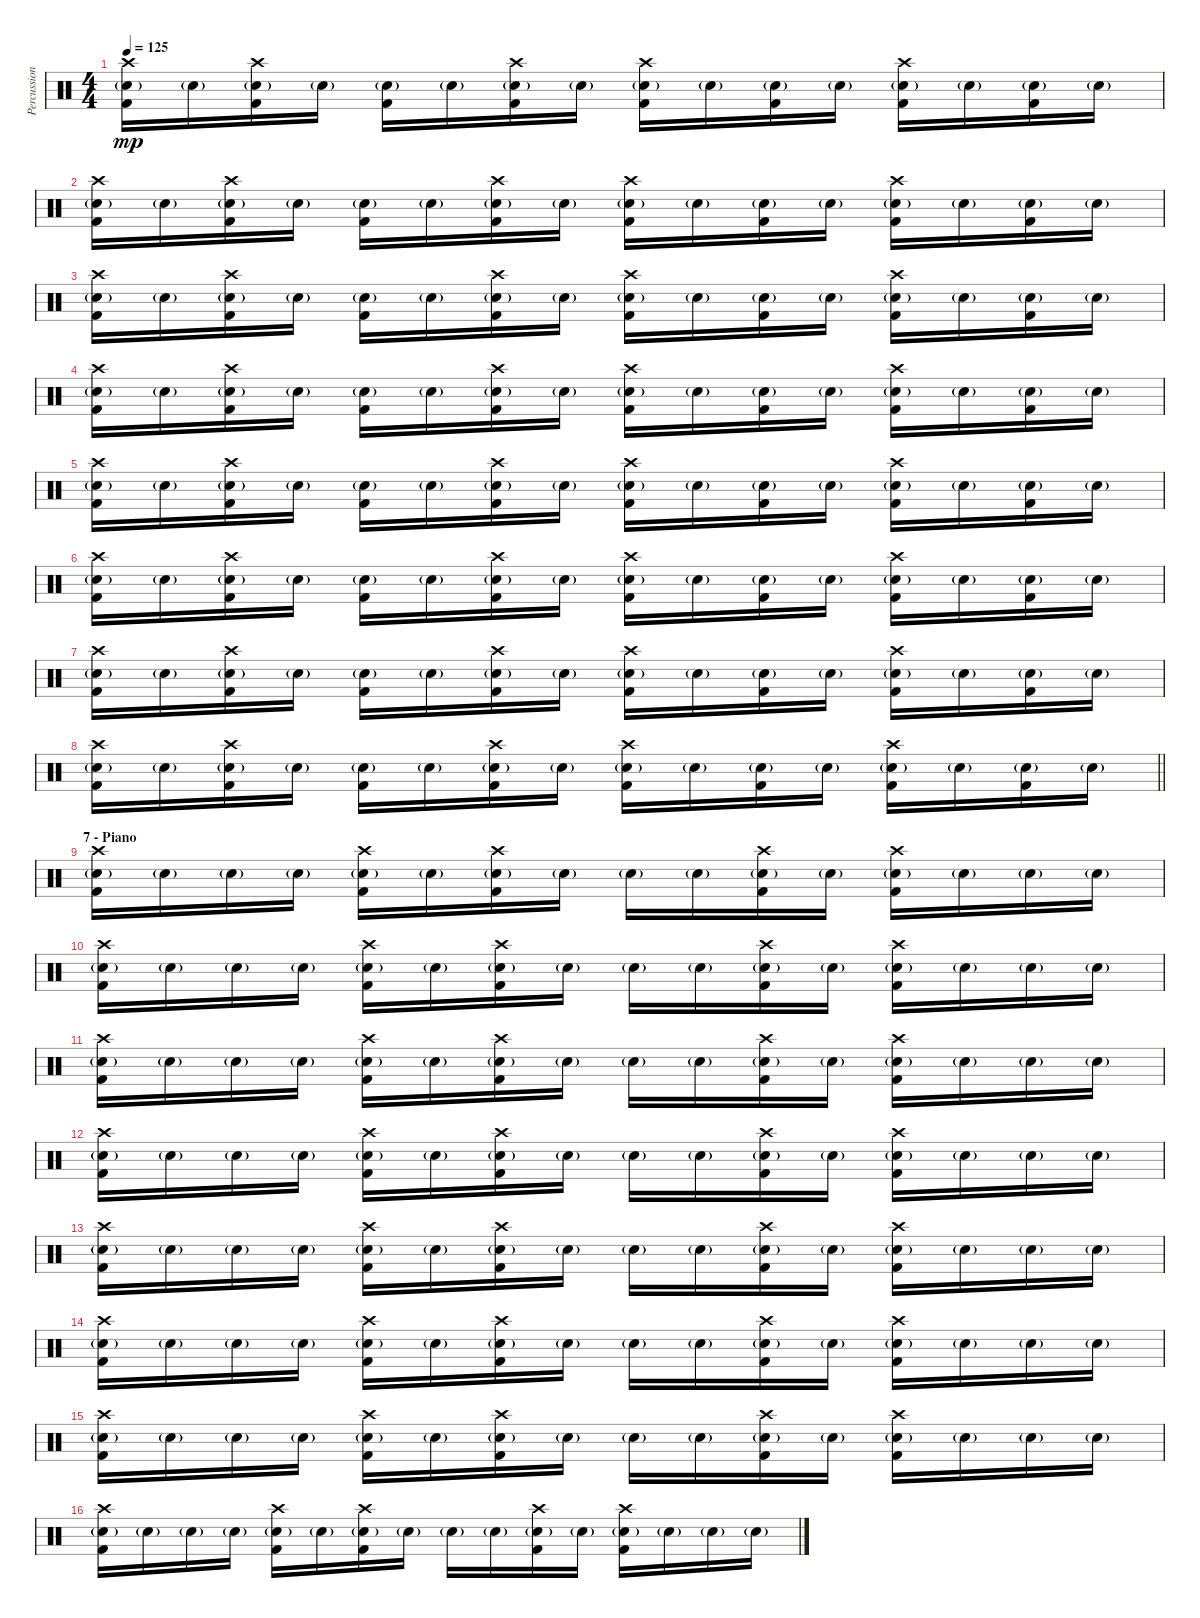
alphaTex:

\track ("Percussion" "Percussion") {instrument percussion}
\staff {score}
\articulation defaults
\ts (4 4)
\tempo 125
\clef neutral
\ks c
("Crash high (hit)" "Snare (hit) 2"{g} "Kick (hit) 2").16{dy mp} "Snare (hit) 2"{g}.16 ("Crash high (hit)" "Snare (hit) 2"{g} "Kick (hit) 2").16 "Snare (hit) 2"{g}.16 ("Snare (hit) 2"{g} "Kick (hit) 2").16 "Snare (hit) 2"{g}.16 ("Crash high (hit)" "Snare (hit) 2"{g} "Kick (hit) 2").16 "Snare (hit) 2"{g}.16 ("Crash high (hit)" "Snare (hit) 2"{g} "Kick (hit) 2").16 "Snare (hit) 2"{g}.16 ("Snare (hit) 2"{g} "Kick (hit) 2").16 "Snare (hit) 2"{g}.16 ("Crash high (hit)" "Snare (hit) 2"{g} "Kick (hit) 2").16 "Snare (hit) 2"{g}.16 ("Snare (hit) 2"{g} "Kick (hit) 2").16 "Snare (hit) 2"{g}.16 |
("Crash high (hit)" "Snare (hit) 2"{g} "Kick (hit) 2").16 "Snare (hit) 2"{g}.16 ("Crash high (hit)" "Snare (hit) 2"{g} "Kick (hit) 2").16 "Snare (hit) 2"{g}.16 ("Snare (hit) 2"{g} "Kick (hit) 2").16 "Snare (hit) 2"{g}.16 ("Crash high (hit)" "Snare (hit) 2"{g} "Kick (hit) 2").16 "Snare (hit) 2"{g}.16 ("Crash high (hit)" "Snare (hit) 2"{g} "Kick (hit) 2").16 "Snare (hit) 2"{g}.16 ("Snare (hit) 2"{g} "Kick (hit) 2").16 "Snare (hit) 2"{g}.16 ("Crash high (hit)" "Snare (hit) 2"{g} "Kick (hit) 2").16 "Snare (hit) 2"{g}.16 ("Snare (hit) 2"{g} "Kick (hit) 2").16 "Snare (hit) 2"{g}.16 |
("Crash high (hit)" "Snare (hit) 2"{g} "Kick (hit) 2").16 "Snare (hit) 2"{g}.16 ("Crash high (hit)" "Snare (hit) 2"{g} "Kick (hit) 2").16 "Snare (hit) 2"{g}.16 ("Snare (hit) 2"{g} "Kick (hit) 2").16 "Snare (hit) 2"{g}.16 ("Crash high (hit)" "Snare (hit) 2"{g} "Kick (hit) 2").16 "Snare (hit) 2"{g}.16 ("Crash high (hit)" "Snare (hit) 2"{g} "Kick (hit) 2").16 "Snare (hit) 2"{g}.16 ("Snare (hit) 2"{g} "Kick (hit) 2").16 "Snare (hit) 2"{g}.16 ("Crash high (hit)" "Snare (hit) 2"{g} "Kick (hit) 2").16 "Snare (hit) 2"{g}.16 ("Snare (hit) 2"{g} "Kick (hit) 2").16 "Snare (hit) 2"{g}.16 |
("Crash high (hit)" "Snare (hit) 2"{g} "Kick (hit) 2").16 "Snare (hit) 2"{g}.16 ("Crash high (hit)" "Snare (hit) 2"{g} "Kick (hit) 2").16 "Snare (hit) 2"{g}.16 ("Snare (hit) 2"{g} "Kick (hit) 2").16 "Snare (hit) 2"{g}.16 ("Crash high (hit)" "Snare (hit) 2"{g} "Kick (hit) 2").16 "Snare (hit) 2"{g}.16 ("Crash high (hit)" "Snare (hit) 2"{g} "Kick (hit) 2").16 "Snare (hit) 2"{g}.16 ("Snare (hit) 2"{g} "Kick (hit) 2").16 "Snare (hit) 2"{g}.16 ("Crash high (hit)" "Snare (hit) 2"{g} "Kick (hit) 2").16 "Snare (hit) 2"{g}.16 ("Snare (hit) 2"{g} "Kick (hit) 2").16 "Snare (hit) 2"{g}.16 |
("Crash high (hit)" "Snare (hit) 2"{g} "Kick (hit) 2").16 "Snare (hit) 2"{g}.16 ("Crash high (hit)" "Snare (hit) 2"{g} "Kick (hit) 2").16 "Snare (hit) 2"{g}.16 ("Snare (hit) 2"{g} "Kick (hit) 2").16 "Snare (hit) 2"{g}.16 ("Crash high (hit)" "Snare (hit) 2"{g} "Kick (hit) 2").16 "Snare (hit) 2"{g}.16 ("Crash high (hit)" "Snare (hit) 2"{g} "Kick (hit) 2").16 "Snare (hit) 2"{g}.16 ("Snare (hit) 2"{g} "Kick (hit) 2").16 "Snare (hit) 2"{g}.16 ("Crash high (hit)" "Snare (hit) 2"{g} "Kick (hit) 2").16 "Snare (hit) 2"{g}.16 ("Snare (hit) 2"{g} "Kick (hit) 2").16 "Snare (hit) 2"{g}.16 |
("Crash high (hit)" "Snare (hit) 2"{g} "Kick (hit) 2").16 "Snare (hit) 2"{g}.16 ("Crash high (hit)" "Snare (hit) 2"{g} "Kick (hit) 2").16 "Snare (hit) 2"{g}.16 ("Snare (hit) 2"{g} "Kick (hit) 2").16 "Snare (hit) 2"{g}.16 ("Crash high (hit)" "Snare (hit) 2"{g} "Kick (hit) 2").16 "Snare (hit) 2"{g}.16 ("Crash high (hit)" "Snare (hit) 2"{g} "Kick (hit) 2").16 "Snare (hit) 2"{g}.16 ("Snare (hit) 2"{g} "Kick (hit) 2").16 "Snare (hit) 2"{g}.16 ("Crash high (hit)" "Snare (hit) 2"{g} "Kick (hit) 2").16 "Snare (hit) 2"{g}.16 ("Snare (hit) 2"{g} "Kick (hit) 2").16 "Snare (hit) 2"{g}.16 |
("Crash high (hit)" "Snare (hit) 2"{g} "Kick (hit) 2").16 "Snare (hit) 2"{g}.16 ("Crash high (hit)" "Snare (hit) 2"{g} "Kick (hit) 2").16 "Snare (hit) 2"{g}.16 ("Snare (hit) 2"{g} "Kick (hit) 2").16 "Snare (hit) 2"{g}.16 ("Crash high (hit)" "Snare (hit) 2"{g} "Kick (hit) 2").16 "Snare (hit) 2"{g}.16 ("Crash high (hit)" "Snare (hit) 2"{g} "Kick (hit) 2").16 "Snare (hit) 2"{g}.16 ("Snare (hit) 2"{g} "Kick (hit) 2").16 "Snare (hit) 2"{g}.16 ("Crash high (hit)" "Snare (hit) 2"{g} "Kick (hit) 2").16 "Snare (hit) 2"{g}.16 ("Snare (hit) 2"{g} "Kick (hit) 2").16 "Snare (hit) 2"{g}.16 |
\barLineRight lightlight
("Crash high (hit)" "Snare (hit) 2"{g} "Kick (hit) 2").16 "Snare (hit) 2"{g}.16 ("Crash high (hit)" "Snare (hit) 2"{g} "Kick (hit) 2").16 "Snare (hit) 2"{g}.16 ("Snare (hit) 2"{g} "Kick (hit) 2").16 "Snare (hit) 2"{g}.16 ("Crash high (hit)" "Snare (hit) 2"{g} "Kick (hit) 2").16 "Snare (hit) 2"{g}.16 ("Crash high (hit)" "Snare (hit) 2"{g} "Kick (hit) 2").16 "Snare (hit) 2"{g}.16 ("Snare (hit) 2"{g} "Kick (hit) 2").16 "Snare (hit) 2"{g}.16 ("Crash high (hit)" "Snare (hit) 2"{g} "Kick (hit) 2").16 "Snare (hit) 2"{g}.16 ("Snare (hit) 2"{g} "Kick (hit) 2").16 "Snare (hit) 2"{g}.16 |
\section ("" "7 - Piano")
("Crash high (hit)" "Snare (hit) 2"{g} "Kick (hit) 2").16 "Snare (hit) 2"{g}.16 "Snare (hit) 2"{g}.16 "Snare (hit) 2"{g}.16 ("Crash high (hit)" "Snare (hit) 2"{g} "Kick (hit) 2").16 "Snare (hit) 2"{g}.16 ("Crash high (hit)" "Snare (hit) 2"{g} "Kick (hit) 2").16 "Snare (hit) 2"{g}.16 "Snare (hit) 2"{g}.16 "Snare (hit) 2"{g}.16 ("Crash high (hit)" "Snare (hit) 2"{g} "Kick (hit) 2").16 "Snare (hit) 2"{g}.16 ("Crash high (hit)" "Snare (hit) 2"{g} "Kick (hit) 2").16 "Snare (hit) 2"{g}.16 "Snare (hit) 2"{g}.16 "Snare (hit) 2"{g}.16 |
("Crash high (hit)" "Snare (hit) 2"{g} "Kick (hit) 2").16 "Snare (hit) 2"{g}.16 "Snare (hit) 2"{g}.16 "Snare (hit) 2"{g}.16 ("Crash high (hit)" "Snare (hit) 2"{g} "Kick (hit) 2").16 "Snare (hit) 2"{g}.16 ("Crash high (hit)" "Snare (hit) 2"{g} "Kick (hit) 2").16 "Snare (hit) 2"{g}.16 "Snare (hit) 2"{g}.16 "Snare (hit) 2"{g}.16 ("Crash high (hit)" "Snare (hit) 2"{g} "Kick (hit) 2").16 "Snare (hit) 2"{g}.16 ("Crash high (hit)" "Snare (hit) 2"{g} "Kick (hit) 2").16 "Snare (hit) 2"{g}.16 "Snare (hit) 2"{g}.16 "Snare (hit) 2"{g}.16 |
("Crash high (hit)" "Snare (hit) 2"{g} "Kick (hit) 2").16 "Snare (hit) 2"{g}.16 "Snare (hit) 2"{g}.16 "Snare (hit) 2"{g}.16 ("Crash high (hit)" "Snare (hit) 2"{g} "Kick (hit) 2").16 "Snare (hit) 2"{g}.16 ("Crash high (hit)" "Snare (hit) 2"{g} "Kick (hit) 2").16 "Snare (hit) 2"{g}.16 "Snare (hit) 2"{g}.16 "Snare (hit) 2"{g}.16 ("Crash high (hit)" "Snare (hit) 2"{g} "Kick (hit) 2").16 "Snare (hit) 2"{g}.16 ("Crash high (hit)" "Snare (hit) 2"{g} "Kick (hit) 2").16 "Snare (hit) 2"{g}.16 "Snare (hit) 2"{g}.16 "Snare (hit) 2"{g}.16 |
("Crash high (hit)" "Snare (hit) 2"{g} "Kick (hit) 2").16 "Snare (hit) 2"{g}.16 "Snare (hit) 2"{g}.16 "Snare (hit) 2"{g}.16 ("Crash high (hit)" "Snare (hit) 2"{g} "Kick (hit) 2").16 "Snare (hit) 2"{g}.16 ("Crash high (hit)" "Snare (hit) 2"{g} "Kick (hit) 2").16 "Snare (hit) 2"{g}.16 "Snare (hit) 2"{g}.16 "Snare (hit) 2"{g}.16 ("Crash high (hit)" "Snare (hit) 2"{g} "Kick (hit) 2").16 "Snare (hit) 2"{g}.16 ("Crash high (hit)" "Snare (hit) 2"{g} "Kick (hit) 2").16 "Snare (hit) 2"{g}.16 "Snare (hit) 2"{g}.16 "Snare (hit) 2"{g}.16 |
("Crash high (hit)" "Snare (hit) 2"{g} "Kick (hit) 2").16 "Snare (hit) 2"{g}.16 "Snare (hit) 2"{g}.16 "Snare (hit) 2"{g}.16 ("Crash high (hit)" "Snare (hit) 2"{g} "Kick (hit) 2").16 "Snare (hit) 2"{g}.16 ("Crash high (hit)" "Snare (hit) 2"{g} "Kick (hit) 2").16 "Snare (hit) 2"{g}.16 "Snare (hit) 2"{g}.16 "Snare (hit) 2"{g}.16 ("Crash high (hit)" "Snare (hit) 2"{g} "Kick (hit) 2").16 "Snare (hit) 2"{g}.16 ("Crash high (hit)" "Snare (hit) 2"{g} "Kick (hit) 2").16 "Snare (hit) 2"{g}.16 "Snare (hit) 2"{g}.16 "Snare (hit) 2"{g}.16 |
("Crash high (hit)" "Snare (hit) 2"{g} "Kick (hit) 2").16 "Snare (hit) 2"{g}.16 "Snare (hit) 2"{g}.16 "Snare (hit) 2"{g}.16 ("Crash high (hit)" "Snare (hit) 2"{g} "Kick (hit) 2").16 "Snare (hit) 2"{g}.16 ("Crash high (hit)" "Snare (hit) 2"{g} "Kick (hit) 2").16 "Snare (hit) 2"{g}.16 "Snare (hit) 2"{g}.16 "Snare (hit) 2"{g}.16 ("Crash high (hit)" "Snare (hit) 2"{g} "Kick (hit) 2").16 "Snare (hit) 2"{g}.16 ("Crash high (hit)" "Snare (hit) 2"{g} "Kick (hit) 2").16 "Snare (hit) 2"{g}.16 "Snare (hit) 2"{g}.16 "Snare (hit) 2"{g}.16 |
("Crash high (hit)" "Snare (hit) 2"{g} "Kick (hit) 2").16 "Snare (hit) 2"{g}.16 "Snare (hit) 2"{g}.16 "Snare (hit) 2"{g}.16 ("Crash high (hit)" "Snare (hit) 2"{g} "Kick (hit) 2").16 "Snare (hit) 2"{g}.16 ("Crash high (hit)" "Snare (hit) 2"{g} "Kick (hit) 2").16 "Snare (hit) 2"{g}.16 "Snare (hit) 2"{g}.16 "Snare (hit) 2"{g}.16 ("Crash high (hit)" "Snare (hit) 2"{g} "Kick (hit) 2").16 "Snare (hit) 2"{g}.16 ("Crash high (hit)" "Snare (hit) 2"{g} "Kick (hit) 2").16 "Snare (hit) 2"{g}.16 "Snare (hit) 2"{g}.16 "Snare (hit) 2"{g}.16 |
("Crash high (hit)" "Snare (hit) 2"{g} "Kick (hit) 2").16 "Snare (hit) 2"{g}.16 "Snare (hit) 2"{g}.16 "Snare (hit) 2"{g}.16 ("Crash high (hit)" "Snare (hit) 2"{g} "Kick (hit) 2").16 "Snare (hit) 2"{g}.16 ("Crash high (hit)" "Snare (hit) 2"{g} "Kick (hit) 2").16 "Snare (hit) 2"{g}.16 "Snare (hit) 2"{g}.16 "Snare (hit) 2"{g}.16 ("Crash high (hit)" "Snare (hit) 2"{g} "Kick (hit) 2").16 "Snare (hit) 2"{g}.16 ("Crash high (hit)" "Snare (hit) 2"{g} "Kick (hit) 2").16 "Snare (hit) 2"{g}.16 "Snare (hit) 2"{g}.16 "Snare (hit) 2"{g}.16
